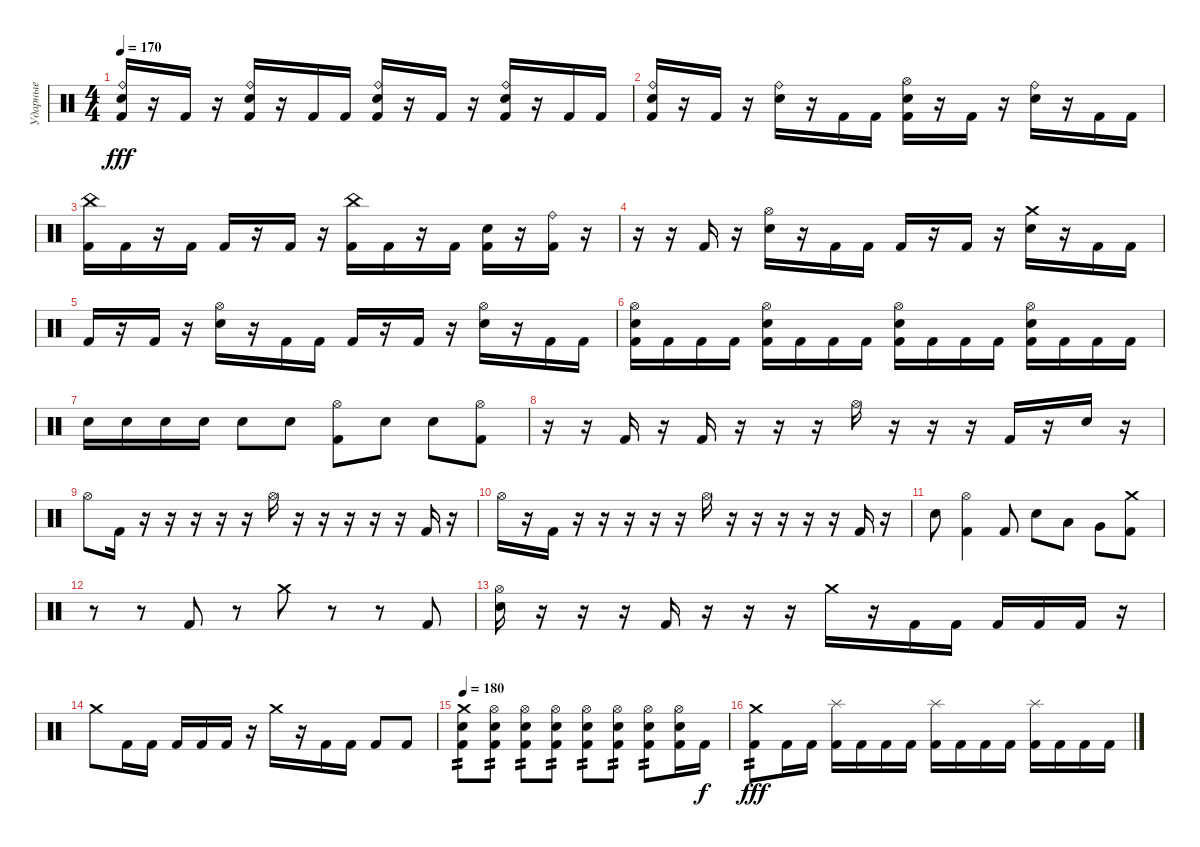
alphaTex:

\track ("Ударные" "Ударные") {instrument percussion}
\staff {score}
\articulation defaults
\ts (4 4)
\tempo 170
\clef neutral
\ks c
("Electric Snare (hit)" "Ride (bell)" "Kick (hit) 2").16{dy fff} r.16 "Kick (hit) 2".16 r.16 ("Ride (bell)" "Electric Snare (hit)" "Kick (hit) 2").16 r.16 "Kick (hit) 2".16 "Kick (hit) 2".16 ("Electric Snare (hit)" "Ride (bell)" "Kick (hit) 2").16 r.16 "Kick (hit) 2".16 r.16 ("Ride (bell)" "Electric Snare (hit)" "Kick (hit) 2").16 r.16 "Kick (hit) 2".16 "Kick (hit) 2".16 |
("Electric Snare (hit)" "Ride (bell)" "Kick (hit) 2").16 r.16 "Kick (hit) 2".16 r.16 ("Electric Snare (hit)" "Ride (bell)").16 r.16 "Kick (hit) 2".16 "Kick (hit) 2".16 ("Hi-Hat (open)" "Electric Snare (hit)" "Kick (hit) 2").16 r.16 "Kick (hit) 2".16 r.16 ("Electric Snare (hit)" "Ride (bell)").16 r.16 "Kick (hit) 2".16 "Kick (hit) 2".16 |
("China (hit)" "Kick (hit) 2").16 "Kick (hit) 2".16 r.16 "Kick (hit) 2".16 "Kick (hit) 2".16 r.16 "Kick (hit) 2".16 r.16 ("China (hit)" "Kick (hit) 2").16 "Kick (hit) 2".16 r.16 "Kick (hit) 2".16 ("Electric Snare (hit)" "Kick (hit) 2").16 r.16 ("Ride (bell)" "Kick (hit) 2").16 r.16 |
r.16 r.16 "Kick (hit) 2".16 r.16 ("Electric Snare (hit)" "Hi-Hat (open)").16 r.16 "Kick (hit) 2".16 "Kick (hit) 2".16 "Kick (hit) 2".16 r.16 "Kick (hit) 2".16 r.16 ("Electric Snare (hit)" "Crash medium (hit)").16 r.16 "Kick (hit) 2".16 "Kick (hit) 2".16 |
"Kick (hit) 2".16 r.16 "Kick (hit) 2".16 r.16 ("Electric Snare (hit)" "Hi-Hat (open)").16 r.16 "Kick (hit) 2".16 "Kick (hit) 2".16 "Kick (hit) 2".16 r.16 "Kick (hit) 2".16 r.16 ("Hi-Hat (open)" "Electric Snare (hit)").16 r.16 "Kick (hit) 2".16 "Kick (hit) 2".16 |
("Kick (hit) 2" "Hi-Hat (open)" "Electric Snare (hit)").16 "Kick (hit) 2".16 "Kick (hit) 2".16 "Kick (hit) 2".16 ("Kick (hit) 2" "Hi-Hat (open)" "Electric Snare (hit)").16 "Kick (hit) 2".16 "Kick (hit) 2".16 "Kick (hit) 2".16 ("Kick (hit) 2" "Hi-Hat (open)" "Electric Snare (hit)").16 "Kick (hit) 2".16 "Kick (hit) 2".16 "Kick (hit) 2".16 ("Kick (hit) 2" "Hi-Hat (open)" "Electric Snare (hit)").16 "Kick (hit) 2".16 "Kick (hit) 2".16 "Kick (hit) 2".16 |
"Electric Snare (hit)".16 "Electric Snare (hit)".16 "Electric Snare (hit)".16 "Electric Snare (hit)".16 "Electric Snare (hit)".8 "Electric Snare (hit)".8 ("Hi-Hat (open)" "Kick (hit) 2").8 "Electric Snare (hit)".8 "Electric Snare (hit)".8 ("Kick (hit) 2" "Hi-Hat (open)").8 |
r.16 r.16 "Kick (hit) 2".16 r.16 "Kick (hit) 2".16 r.16 r.16 r.16 "Hi-Hat (open)".16 r.16 r.16 r.16 "Kick (hit) 2".16 r.16 "Electric Snare (hit)".16 r.16 |
"Hi-Hat (open)".8 "Kick (hit) 2".16 r.16 r.16 r.16 r.16 r.16 "Hi-Hat (open)".16 r.16 r.16 r.16 r.16 r.16 "Kick (hit) 2".16 r.16 |
"Hi-Hat (open)".16 r.16 "Kick (hit) 2".16 r.16 r.16 r.16 r.16 r.16 "Hi-Hat (open)".16 r.16 r.16 r.16 r.16 r.16 "Kick (hit) 2".16 r.16 |
"Electric Snare (hit)".8 ("Kick (hit) 2" "Hi-Hat (open)").4 "Kick (hit) 2".8 "Electric Snare (hit)".8 "Low Tom (hit)".8 "Very Low Tom (hit)".8 ("Kick (hit) 2" "Crash medium (hit)").8 |
r.8 r.8 "Kick (hit) 2".8 r.8 "Crash medium (hit)".8 r.8 r.8 "Kick (hit) 2".8 |
("Electric Snare (hit)" "Hi-Hat (open)").16 r.16 r.16 r.16 "Kick (hit) 2".16 r.16 r.16 r.16 "Crash medium (hit)".16 r.16 "Kick (hit) 2".16 "Kick (hit) 2".16 "Kick (hit) 2".16 "Kick (hit) 2".16 "Kick (hit) 2".16 r.16 |
"Crash medium (hit)".8 "Kick (hit) 2".16 "Kick (hit) 2".16 "Kick (hit) 2".16 "Kick (hit) 2".16 "Kick (hit) 2".16 r.16 "Crash medium (hit)".16 r.16 "Kick (hit) 2".16 "Kick (hit) 2".16 "Kick (hit) 2".8 "Kick (hit) 2".8 |
\tempo 180
("Kick (hit) 2" "Electric Snare (hit)" "Crash medium (hit)").8{tp 2} ("Hi-Hat (open)" "Kick (hit) 2" "Electric Snare (hit)").8{tp 2} ("Hi-Hat (open)" "Kick (hit) 2" "Electric Snare (hit)").8{tp 2} ("Hi-Hat (open)" "Kick (hit) 2" "Electric Snare (hit)").8{tp 2} ("Hi-Hat (open)" "Kick (hit) 2" "Electric Snare (hit)").8{tp 2} ("Hi-Hat (open)" "Kick (hit) 2" "Electric Snare (hit)").8{tp 2} ("Hi-Hat (open)" "Kick (hit) 2" "Electric Snare (hit)").8{tp 2} ("Kick (hit) 2" "Electric Snare (hit)" "Hi-Hat (open)").16 "Kick (hit) 2".16{dy f} |
("Kick (hit) 2" "Crash medium (hit)").8{tp 2 dy fff} "Kick (hit) 2".16 "Kick (hit) 2".16 ("Kick (hit) 2" "Splash (hit)").16 "Kick (hit) 2".16 "Kick (hit) 2".16 "Kick (hit) 2".16 ("Kick (hit) 2" "Splash (hit)").16 "Kick (hit) 2".16 "Kick (hit) 2".16 "Kick (hit) 2".16 ("Kick (hit) 2" "Splash (hit)").16 "Kick (hit) 2".16 "Kick (hit) 2".16 "Kick (hit) 2".16
